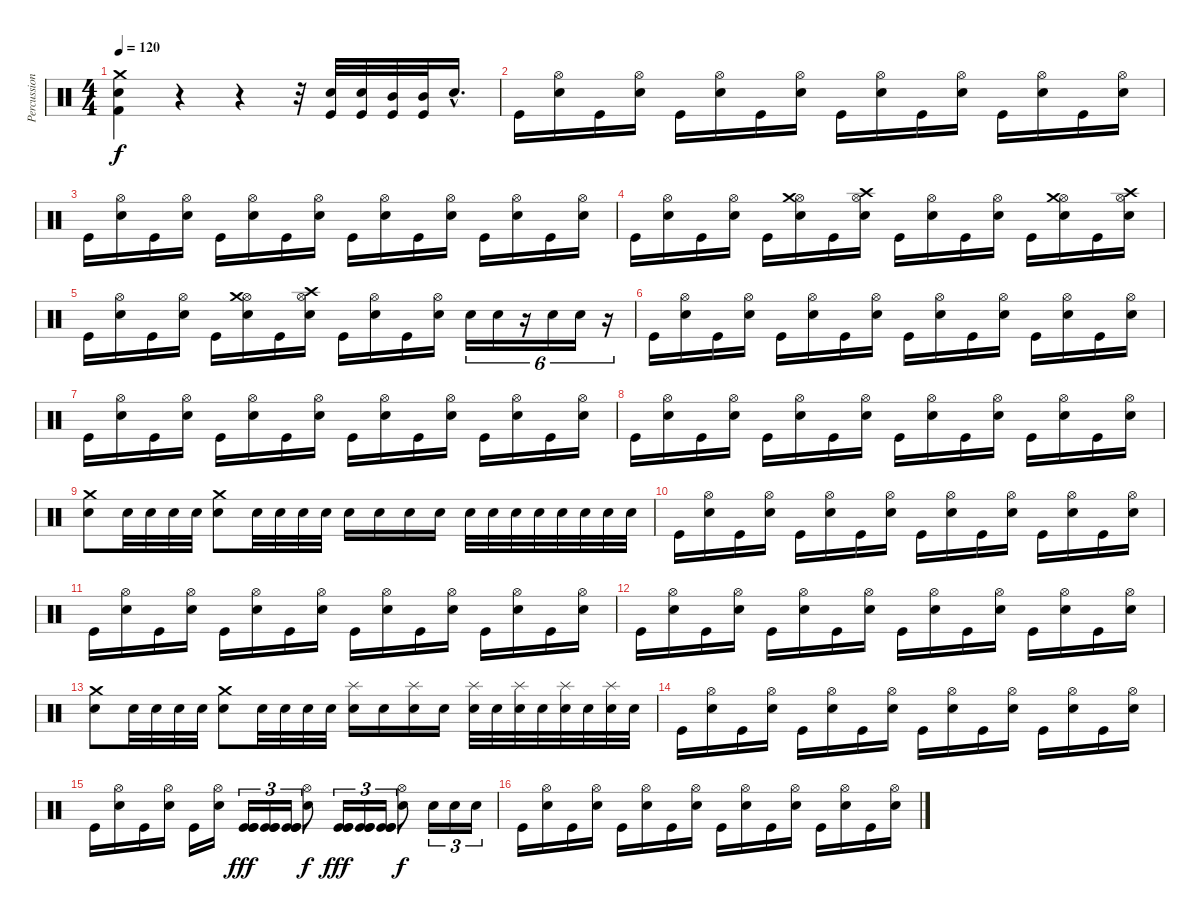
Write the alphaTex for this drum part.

\track ("Percussioni" "Percussion") {instrument percussion}
\staff {score}
\articulation defaults
\ts (4 4)
\tempo 120
\clef neutral
\ks c
("Crash medium (hit)" "Electric Snare (hit)" "Kick (hit) 2").4{dy f} r.4 r.4 r.32 ("Electric Snare (hit)" "Kick (hit)").32 ("Electric Snare (hit)" "Kick (hit)").32 ("Mid Tom (hit)" "Kick (hit)").32 ("Mid Tom (hit)" "Kick (hit)").32 "Electric Snare (hit)"{hac}.16{d} |
"Kick (hit)".16 ("Hi-Hat (open)" "Electric Snare (hit)").16 "Kick (hit)".16 ("Hi-Hat (open)" "Electric Snare (hit)").16 "Kick (hit)".16 ("Hi-Hat (open)" "Electric Snare (hit)").16 "Kick (hit)".16 ("Hi-Hat (open)" "Electric Snare (hit)").16 "Kick (hit)".16 ("Hi-Hat (open)" "Electric Snare (hit)").16 "Kick (hit)".16 ("Hi-Hat (open)" "Electric Snare (hit)").16 "Kick (hit)".16 ("Hi-Hat (open)" "Electric Snare (hit)").16 "Kick (hit)".16 ("Hi-Hat (open)" "Electric Snare (hit)").16 |
"Kick (hit)".16 ("Hi-Hat (open)" "Electric Snare (hit)").16 "Kick (hit)".16 ("Hi-Hat (open)" "Electric Snare (hit)").16 "Kick (hit)".16 ("Hi-Hat (open)" "Electric Snare (hit)").16 "Kick (hit)".16 ("Hi-Hat (open)" "Electric Snare (hit)").16 "Kick (hit)".16 ("Hi-Hat (open)" "Electric Snare (hit)").16 "Kick (hit)".16 ("Hi-Hat (open)" "Electric Snare (hit)").16 "Kick (hit)".16 ("Hi-Hat (open)" "Electric Snare (hit)").16 "Kick (hit)".16 ("Hi-Hat (open)" "Electric Snare (hit)").16 |
"Kick (hit)".16 ("Hi-Hat (open)" "Electric Snare (hit)").16 "Kick (hit)".16 ("Hi-Hat (open)" "Electric Snare (hit)").16 "Kick (hit)".16 ("Hi-Hat (open)" "Crash medium (hit)" "Electric Snare (hit)").16 "Kick (hit)".16 ("Hi-Hat (open)" "Crash high (hit)" "Electric Snare (hit)").16 "Kick (hit)".16 ("Hi-Hat (open)" "Electric Snare (hit)").16 "Kick (hit)".16 ("Hi-Hat (open)" "Electric Snare (hit)").16 "Kick (hit)".16 ("Hi-Hat (open)" "Crash medium (hit)" "Electric Snare (hit)").16 "Kick (hit)".16 ("Hi-Hat (open)" "Crash high (hit)" "Electric Snare (hit)").16 |
"Kick (hit)".16 ("Hi-Hat (open)" "Electric Snare (hit)").16 "Kick (hit)".16 ("Hi-Hat (open)" "Electric Snare (hit)").16 "Kick (hit)".16 ("Hi-Hat (open)" "Crash medium (hit)" "Electric Snare (hit)").16 "Kick (hit)".16 ("Hi-Hat (open)" "Crash high (hit)" "Electric Snare (hit)").16 "Kick (hit)".16 ("Hi-Hat (open)" "Electric Snare (hit)").16 "Kick (hit)".16 ("Hi-Hat (open)" "Electric Snare (hit)").16 "Electric Snare (hit)".16{tu (6 4)} "Electric Snare (hit)".16{tu (6 4)} r.16{tu (6 4)} "Snare (hit) 2".16{tu (6 4)} "Snare (hit) 2".16{tu (6 4)} r.16{tu (6 4)} |
"Kick (hit)".16 ("Hi-Hat (open)" "Electric Snare (hit)").16 "Kick (hit)".16 ("Hi-Hat (open)" "Electric Snare (hit)").16 "Kick (hit)".16 ("Hi-Hat (open)" "Electric Snare (hit)").16 "Kick (hit)".16 ("Hi-Hat (open)" "Electric Snare (hit)").16 "Kick (hit)".16 ("Hi-Hat (open)" "Electric Snare (hit)").16 "Kick (hit)".16 ("Hi-Hat (open)" "Electric Snare (hit)").16 "Kick (hit)".16 ("Hi-Hat (open)" "Electric Snare (hit)").16 "Kick (hit)".16 ("Hi-Hat (open)" "Electric Snare (hit)").16 |
"Kick (hit)".16 ("Hi-Hat (open)" "Electric Snare (hit)").16 "Kick (hit)".16 ("Hi-Hat (open)" "Electric Snare (hit)").16 "Kick (hit)".16 ("Hi-Hat (open)" "Electric Snare (hit)").16 "Kick (hit)".16 ("Hi-Hat (open)" "Electric Snare (hit)").16 "Kick (hit)".16 ("Hi-Hat (open)" "Electric Snare (hit)").16 "Kick (hit)".16 ("Hi-Hat (open)" "Electric Snare (hit)").16 "Kick (hit)".16 ("Hi-Hat (open)" "Electric Snare (hit)").16 "Kick (hit)".16 ("Hi-Hat (open)" "Electric Snare (hit)").16 |
"Kick (hit)".16 ("Hi-Hat (open)" "Electric Snare (hit)").16 "Kick (hit)".16 ("Hi-Hat (open)" "Electric Snare (hit)").16 "Kick (hit)".16 ("Hi-Hat (open)" "Electric Snare (hit)").16 "Kick (hit)".16 ("Hi-Hat (open)" "Electric Snare (hit)").16 "Kick (hit)".16 ("Hi-Hat (open)" "Electric Snare (hit)").16 "Kick (hit)".16 ("Hi-Hat (open)" "Electric Snare (hit)").16 "Kick (hit)".16 ("Hi-Hat (open)" "Electric Snare (hit)").16 "Kick (hit)".16 ("Hi-Hat (open)" "Electric Snare (hit)").16 |
("Crash medium (hit)" "Electric Snare (hit)").8 "Electric Snare (hit)".32 "Electric Snare (hit)".32 "Electric Snare (hit)".32 "Electric Snare (hit)".32 ("Crash medium (hit)" "Electric Snare (hit)").8 "Electric Snare (hit)".32 "Electric Snare (hit)".32 "Electric Snare (hit)".32 "Electric Snare (hit)".32 "Electric Snare (hit)".16 "Electric Snare (hit)".16 "Electric Snare (hit)".16 "Electric Snare (hit)".16 "Electric Snare (hit)".32 "Electric Snare (hit)".32 "Electric Snare (hit)".32 "Electric Snare (hit)".32 "Electric Snare (hit)".32 "Electric Snare (hit)".32 "Electric Snare (hit)".32 "Electric Snare (hit)".32 |
"Kick (hit)".16 ("Hi-Hat (open)" "Electric Snare (hit)").16 "Kick (hit)".16 ("Hi-Hat (open)" "Electric Snare (hit)").16 "Kick (hit)".16 ("Hi-Hat (open)" "Electric Snare (hit)").16 "Kick (hit)".16 ("Hi-Hat (open)" "Electric Snare (hit)").16 "Kick (hit)".16 ("Hi-Hat (open)" "Electric Snare (hit)").16 "Kick (hit)".16 ("Hi-Hat (open)" "Electric Snare (hit)").16 "Kick (hit)".16 ("Hi-Hat (open)" "Electric Snare (hit)").16 "Kick (hit)".16 ("Hi-Hat (open)" "Electric Snare (hit)").16 |
"Kick (hit)".16 ("Hi-Hat (open)" "Electric Snare (hit)").16 "Kick (hit)".16 ("Hi-Hat (open)" "Electric Snare (hit)").16 "Kick (hit)".16 ("Hi-Hat (open)" "Electric Snare (hit)").16 "Kick (hit)".16 ("Hi-Hat (open)" "Electric Snare (hit)").16 "Kick (hit)".16 ("Hi-Hat (open)" "Electric Snare (hit)").16 "Kick (hit)".16 ("Hi-Hat (open)" "Electric Snare (hit)").16 "Kick (hit)".16 ("Hi-Hat (open)" "Electric Snare (hit)").16 "Kick (hit)".16 ("Hi-Hat (open)" "Electric Snare (hit)").16 |
"Kick (hit)".16 ("Hi-Hat (open)" "Electric Snare (hit)").16 "Kick (hit)".16 ("Hi-Hat (open)" "Electric Snare (hit)").16 "Kick (hit)".16 ("Hi-Hat (open)" "Electric Snare (hit)").16 "Kick (hit)".16 ("Hi-Hat (open)" "Electric Snare (hit)").16 "Kick (hit)".16 ("Hi-Hat (open)" "Electric Snare (hit)").16 "Kick (hit)".16 ("Hi-Hat (open)" "Electric Snare (hit)").16 "Kick (hit)".16 ("Hi-Hat (open)" "Electric Snare (hit)").16 "Kick (hit)".16 ("Hi-Hat (open)" "Electric Snare (hit)").16 |
("Crash medium (hit)" "Electric Snare (hit)").8 "Electric Snare (hit)".32 "Electric Snare (hit)".32 "Electric Snare (hit)".32 "Electric Snare (hit)".32 ("Crash medium (hit)" "Electric Snare (hit)").8 "Electric Snare (hit)".32 "Electric Snare (hit)".32 "Electric Snare (hit)".32 "Electric Snare (hit)".32 ("Splash (hit)" "Electric Snare (hit)").16 "Electric Snare (hit)".16 ("Splash (hit)" "Electric Snare (hit)").16 "Electric Snare (hit)".16 ("Splash (hit)" "Electric Snare (hit)").32 "Electric Snare (hit)".32 ("Splash (hit)" "Electric Snare (hit)").32 "Electric Snare (hit)".32 ("Splash (hit)" "Electric Snare (hit)").32 "Electric Snare (hit)".32 ("Splash (hit)" "Electric Snare (hit)").32 "Electric Snare (hit)".32 |
"Kick (hit)".16 ("Hi-Hat (open)" "Electric Snare (hit)").16 "Kick (hit)".16 ("Hi-Hat (open)" "Electric Snare (hit)").16 "Kick (hit)".16 ("Hi-Hat (open)" "Electric Snare (hit)").16 "Kick (hit)".16 ("Hi-Hat (open)" "Electric Snare (hit)").16 "Kick (hit)".16 ("Hi-Hat (open)" "Electric Snare (hit)").16 "Kick (hit)".16 ("Hi-Hat (open)" "Electric Snare (hit)").16 "Kick (hit)".16 ("Hi-Hat (open)" "Electric Snare (hit)").16 "Kick (hit)".16 ("Hi-Hat (open)" "Electric Snare (hit)").16 |
"Kick (hit)".16 ("Hi-Hat (open)" "Electric Snare (hit)").16 "Kick (hit)".16 ("Hi-Hat (open)" "Electric Snare (hit)").16 "Kick (hit)".16 ("Hi-Hat (open)" "Electric Snare (hit)").16 ("Kick (hit)" "Kick (hit)" "Kick (hit)").16{tu (3 2) dy fff} ("Kick (hit)" "Kick (hit)" "Kick (hit)").16{tu (3 2)} ("Kick (hit)" "Kick (hit)" "Kick (hit)").16{tu (3 2)} ("Hi-Hat (open)" "Electric Snare (hit)").8{dy f} ("Kick (hit)" "Kick (hit)" "Kick (hit)").16{tu (3 2) dy fff} ("Kick (hit)" "Kick (hit)" "Kick (hit)").16{tu (3 2)} ("Kick (hit)" "Kick (hit)" "Kick (hit)").16{tu (3 2)} ("Hi-Hat (open)" "Electric Snare (hit)").8{dy f} "Electric Snare (hit)".16{tu (3 2)} "Electric Snare (hit)".16{tu (3 2)} "Electric Snare (hit)".16{tu (3 2)} |
"Kick (hit)".16 ("Hi-Hat (open)" "Electric Snare (hit)").16 "Kick (hit)".16 ("Hi-Hat (open)" "Electric Snare (hit)").16 "Kick (hit)".16 ("Hi-Hat (open)" "Electric Snare (hit)").16 "Kick (hit)".16 ("Hi-Hat (open)" "Electric Snare (hit)").16 "Kick (hit)".16 ("Hi-Hat (open)" "Electric Snare (hit)").16 "Kick (hit)".16 ("Hi-Hat (open)" "Electric Snare (hit)").16 "Kick (hit)".16 ("Hi-Hat (open)" "Electric Snare (hit)").16 "Kick (hit)".16 ("Hi-Hat (open)" "Electric Snare (hit)").16
